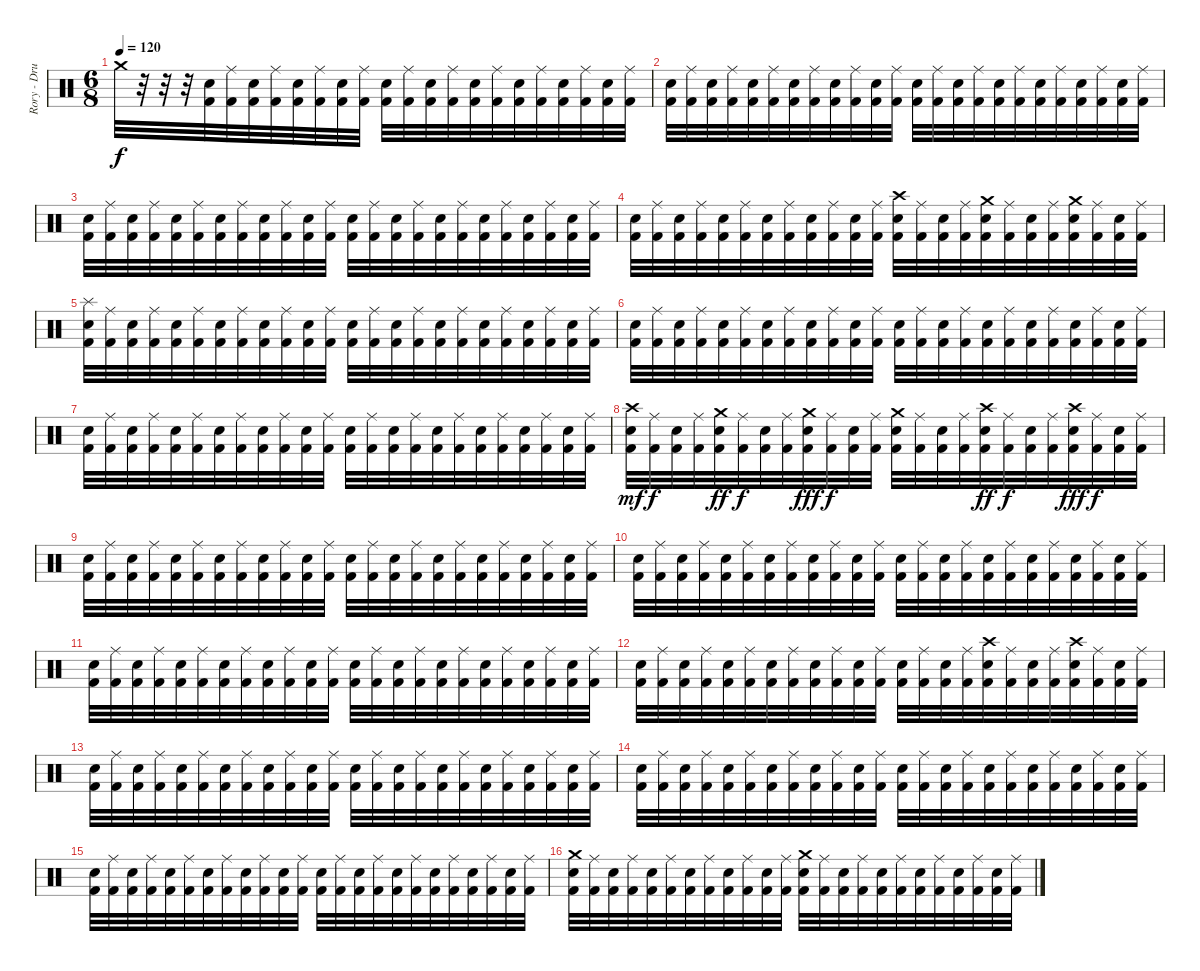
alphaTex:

\track ("Rory - Drums" "Rory - Dru") {instrument percussion}
\staff {score}
\articulation defaults
\ts (6 8)
\tempo 120
\clef neutral
\ks c "Crash medium (hit)".32{dy f}
r.32 r.32 r.32 ("Kick (hit) 2" "Electric Snare (hit)").32 ("Kick (hit) 2" "Ride (middle)").32 ("Kick (hit) 2" "Electric Snare (hit)").32 ("Kick (hit) 2" "Ride (middle)").32 ("Kick (hit) 2" "Electric Snare (hit)").32 ("Kick (hit) 2" "Ride (middle)").32 ("Kick (hit) 2" "Electric Snare (hit)").32 ("Kick (hit) 2" "Ride (middle)").32 ("Kick (hit) 2" "Electric Snare (hit)").32 ("Kick (hit) 2" "Ride (middle)").32 ("Kick (hit) 2" "Electric Snare (hit)").32 ("Kick (hit) 2" "Ride (middle)").32 ("Kick (hit) 2" "Electric Snare (hit)").32 ("Kick (hit) 2" "Ride (middle)").32 ("Kick (hit) 2" "Electric Snare (hit)").32 ("Kick (hit) 2" "Ride (middle)").32 ("Kick (hit) 2" "Electric Snare (hit)").32 ("Kick (hit) 2" "Ride (middle)").32 ("Kick (hit) 2" "Electric Snare (hit)").32 ("Kick (hit) 2" "Ride (middle)").32 |
("Kick (hit) 2" "Electric Snare (hit)").32 ("Kick (hit) 2" "Ride (middle)").32 ("Kick (hit) 2" "Electric Snare (hit)").32 ("Kick (hit) 2" "Ride (middle)").32 ("Kick (hit) 2" "Electric Snare (hit)").32 ("Kick (hit) 2" "Ride (middle)").32 ("Kick (hit) 2" "Electric Snare (hit)").32 ("Kick (hit) 2" "Ride (middle)").32 ("Kick (hit) 2" "Electric Snare (hit)").32 ("Kick (hit) 2" "Ride (middle)").32 ("Kick (hit) 2" "Electric Snare (hit)").32 ("Kick (hit) 2" "Ride (middle)").32 ("Kick (hit) 2" "Electric Snare (hit)").32 ("Kick (hit) 2" "Ride (middle)").32 ("Kick (hit) 2" "Electric Snare (hit)").32 ("Kick (hit) 2" "Ride (middle)").32 ("Kick (hit) 2" "Electric Snare (hit)").32 ("Kick (hit) 2" "Ride (middle)").32 ("Kick (hit) 2" "Electric Snare (hit)").32 ("Kick (hit) 2" "Ride (middle)").32 ("Kick (hit) 2" "Electric Snare (hit)").32 ("Kick (hit) 2" "Ride (middle)").32 ("Kick (hit) 2" "Electric Snare (hit)").32 ("Kick (hit) 2" "Ride (middle)").32 |
("Kick (hit) 2" "Electric Snare (hit)").32 ("Kick (hit) 2" "Ride (middle)").32 ("Kick (hit) 2" "Electric Snare (hit)").32 ("Kick (hit) 2" "Ride (middle)").32 ("Kick (hit) 2" "Electric Snare (hit)").32 ("Kick (hit) 2" "Ride (middle)").32 ("Kick (hit) 2" "Electric Snare (hit)").32 ("Kick (hit) 2" "Ride (middle)").32 ("Kick (hit) 2" "Electric Snare (hit)").32 ("Kick (hit) 2" "Ride (middle)").32 ("Kick (hit) 2" "Electric Snare (hit)").32 ("Kick (hit) 2" "Ride (middle)").32 ("Kick (hit) 2" "Electric Snare (hit)").32 ("Kick (hit) 2" "Ride (middle)").32 ("Kick (hit) 2" "Electric Snare (hit)").32 ("Kick (hit) 2" "Ride (middle)").32 ("Kick (hit) 2" "Electric Snare (hit)").32 ("Kick (hit) 2" "Ride (middle)").32 ("Kick (hit) 2" "Electric Snare (hit)").32 ("Kick (hit) 2" "Ride (middle)").32 ("Kick (hit) 2" "Electric Snare (hit)").32 ("Kick (hit) 2" "Ride (middle)").32 ("Kick (hit) 2" "Electric Snare (hit)").32 ("Kick (hit) 2" "Ride (middle)").32 |
("Kick (hit) 2" "Electric Snare (hit)").32 ("Kick (hit) 2" "Ride (middle)").32 ("Kick (hit) 2" "Electric Snare (hit)").32 ("Kick (hit) 2" "Ride (middle)").32 ("Kick (hit) 2" "Electric Snare (hit)").32 ("Kick (hit) 2" "Ride (middle)").32 ("Kick (hit) 2" "Electric Snare (hit)").32 ("Kick (hit) 2" "Ride (middle)").32 ("Kick (hit) 2" "Electric Snare (hit)").32 ("Kick (hit) 2" "Ride (middle)").32 ("Kick (hit) 2" "Electric Snare (hit)").32 ("Kick (hit) 2" "Ride (middle)").32 ("Kick (hit) 2" "Crash high (hit)" "Electric Snare (hit)").32 ("Kick (hit) 2" "Ride (middle)").32 ("Kick (hit) 2" "Electric Snare (hit)").32 ("Kick (hit) 2" "Ride (middle)").32 ("Kick (hit) 2" "Crash medium (hit)" "Electric Snare (hit)").32 ("Kick (hit) 2" "Ride (middle)").32 ("Kick (hit) 2" "Electric Snare (hit)").32 ("Kick (hit) 2" "Ride (middle)").32 ("Kick (hit) 2" "Crash medium (hit)" "Electric Snare (hit)").32 ("Kick (hit) 2" "Ride (middle)").32 ("Kick (hit) 2" "Electric Snare (hit)").32 ("Kick (hit) 2" "Ride (middle)").32 |
("Kick (hit) 2" "Splash (hit)" "Electric Snare (hit)").32 ("Kick (hit) 2" "Ride (middle)").32 ("Kick (hit) 2" "Electric Snare (hit)").32 ("Kick (hit) 2" "Ride (middle)").32 ("Kick (hit) 2" "Electric Snare (hit)").32 ("Kick (hit) 2" "Ride (middle)").32 ("Kick (hit) 2" "Electric Snare (hit)").32 ("Kick (hit) 2" "Ride (middle)").32 ("Kick (hit) 2" "Electric Snare (hit)").32 ("Kick (hit) 2" "Ride (middle)").32 ("Kick (hit) 2" "Electric Snare (hit)").32 ("Kick (hit) 2" "Ride (middle)").32 ("Kick (hit) 2" "Electric Snare (hit)").32 ("Kick (hit) 2" "Ride (middle)").32 ("Kick (hit) 2" "Electric Snare (hit)").32 ("Kick (hit) 2" "Ride (middle)").32 ("Kick (hit) 2" "Electric Snare (hit)").32 ("Kick (hit) 2" "Ride (middle)").32 ("Kick (hit) 2" "Electric Snare (hit)").32 ("Kick (hit) 2" "Ride (middle)").32 ("Kick (hit) 2" "Electric Snare (hit)").32 ("Kick (hit) 2" "Ride (middle)").32 ("Kick (hit) 2" "Electric Snare (hit)").32 ("Kick (hit) 2" "Ride (middle)").32 |
("Kick (hit) 2" "Electric Snare (hit)").32 ("Kick (hit) 2" "Ride (middle)").32 ("Kick (hit) 2" "Electric Snare (hit)").32 ("Kick (hit) 2" "Ride (middle)").32 ("Kick (hit) 2" "Electric Snare (hit)").32 ("Kick (hit) 2" "Ride (middle)").32 ("Kick (hit) 2" "Electric Snare (hit)").32 ("Kick (hit) 2" "Ride (middle)").32 ("Kick (hit) 2" "Electric Snare (hit)").32 ("Kick (hit) 2" "Ride (middle)").32 ("Kick (hit) 2" "Electric Snare (hit)").32 ("Kick (hit) 2" "Ride (middle)").32 ("Kick (hit) 2" "Electric Snare (hit)").32 ("Kick (hit) 2" "Ride (middle)").32 ("Kick (hit) 2" "Electric Snare (hit)").32 ("Kick (hit) 2" "Ride (middle)").32 ("Kick (hit) 2" "Electric Snare (hit)").32 ("Kick (hit) 2" "Ride (middle)").32 ("Kick (hit) 2" "Electric Snare (hit)").32 ("Kick (hit) 2" "Ride (middle)").32 ("Kick (hit) 2" "Electric Snare (hit)").32 ("Kick (hit) 2" "Ride (middle)").32 ("Kick (hit) 2" "Electric Snare (hit)").32 ("Kick (hit) 2" "Ride (middle)").32 |
("Kick (hit) 2" "Electric Snare (hit)").32 ("Kick (hit) 2" "Ride (middle)").32 ("Kick (hit) 2" "Electric Snare (hit)").32 ("Kick (hit) 2" "Ride (middle)").32 ("Kick (hit) 2" "Electric Snare (hit)").32 ("Kick (hit) 2" "Ride (middle)").32 ("Kick (hit) 2" "Electric Snare (hit)").32 ("Kick (hit) 2" "Ride (middle)").32 ("Kick (hit) 2" "Electric Snare (hit)").32 ("Kick (hit) 2" "Ride (middle)").32 ("Kick (hit) 2" "Electric Snare (hit)").32 ("Kick (hit) 2" "Ride (middle)").32 ("Kick (hit) 2" "Electric Snare (hit)").32 ("Kick (hit) 2" "Ride (middle)").32 ("Kick (hit) 2" "Electric Snare (hit)").32 ("Kick (hit) 2" "Ride (middle)").32 ("Kick (hit) 2" "Electric Snare (hit)").32 ("Kick (hit) 2" "Ride (middle)").32 ("Kick (hit) 2" "Electric Snare (hit)").32 ("Kick (hit) 2" "Ride (middle)").32 ("Kick (hit) 2" "Electric Snare (hit)").32 ("Kick (hit) 2" "Ride (middle)").32 ("Kick (hit) 2" "Electric Snare (hit)").32 ("Kick (hit) 2" "Ride (middle)").32 |
("Kick (hit) 2" "Crash high (hit)" "Electric Snare (hit)").32{dy mf} ("Kick (hit) 2" "Ride (middle)").32{dy f} ("Kick (hit) 2" "Electric Snare (hit)").32 ("Kick (hit) 2" "Ride (middle)").32 ("Kick (hit) 2" "Crash medium (hit)" "Electric Snare (hit)").32{dy ff} ("Kick (hit) 2" "Ride (middle)").32{dy f} ("Kick (hit) 2" "Electric Snare (hit)").32 ("Kick (hit) 2" "Ride (middle)").32 ("Kick (hit) 2" "Crash medium (hit)" "Electric Snare (hit)").32{dy fff} ("Kick (hit) 2" "Ride (middle)").32{dy f} ("Kick (hit) 2" "Electric Snare (hit)").32 ("Kick (hit) 2" "Ride (middle)").32 ("Kick (hit) 2" "Crash medium (hit)" "Electric Snare (hit)").32 ("Kick (hit) 2" "Ride (middle)").32 ("Kick (hit) 2" "Electric Snare (hit)").32 ("Kick (hit) 2" "Ride (middle)").32 ("Kick (hit) 2" "Crash high (hit)" "Electric Snare (hit)").32{dy ff} ("Kick (hit) 2" "Ride (middle)").32{dy f} ("Kick (hit) 2" "Electric Snare (hit)").32 ("Kick (hit) 2" "Ride (middle)").32 ("Kick (hit) 2" "Crash high (hit)" "Electric Snare (hit)").32{dy fff} ("Kick (hit) 2" "Ride (middle)").32{dy f} ("Kick (hit) 2" "Electric Snare (hit)").32 ("Kick (hit) 2" "Ride (middle)").32 |
("Kick (hit) 2" "Electric Snare (hit)").32 ("Kick (hit) 2" "Ride (middle)").32 ("Kick (hit) 2" "Electric Snare (hit)").32 ("Kick (hit) 2" "Ride (middle)").32 ("Kick (hit) 2" "Electric Snare (hit)").32 ("Kick (hit) 2" "Ride (middle)").32 ("Kick (hit) 2" "Electric Snare (hit)").32 ("Kick (hit) 2" "Ride (middle)").32 ("Kick (hit) 2" "Electric Snare (hit)").32 ("Kick (hit) 2" "Ride (middle)").32 ("Kick (hit) 2" "Electric Snare (hit)").32 ("Kick (hit) 2" "Ride (middle)").32 ("Kick (hit) 2" "Electric Snare (hit)").32 ("Kick (hit) 2" "Ride (middle)").32 ("Kick (hit) 2" "Electric Snare (hit)").32 ("Kick (hit) 2" "Ride (middle)").32 ("Kick (hit) 2" "Electric Snare (hit)").32 ("Kick (hit) 2" "Ride (middle)").32 ("Kick (hit) 2" "Electric Snare (hit)").32 ("Kick (hit) 2" "Ride (middle)").32 ("Kick (hit) 2" "Electric Snare (hit)").32 ("Kick (hit) 2" "Ride (middle)").32 ("Kick (hit) 2" "Electric Snare (hit)").32 ("Kick (hit) 2" "Ride (middle)").32 |
("Kick (hit) 2" "Electric Snare (hit)").32 ("Kick (hit) 2" "Ride (middle)").32 ("Kick (hit) 2" "Electric Snare (hit)").32 ("Kick (hit) 2" "Ride (middle)").32 ("Kick (hit) 2" "Electric Snare (hit)").32 ("Kick (hit) 2" "Ride (middle)").32 ("Kick (hit) 2" "Electric Snare (hit)").32 ("Kick (hit) 2" "Ride (middle)").32 ("Kick (hit) 2" "Electric Snare (hit)").32 ("Kick (hit) 2" "Ride (middle)").32 ("Kick (hit) 2" "Electric Snare (hit)").32 ("Kick (hit) 2" "Ride (middle)").32 ("Kick (hit) 2" "Electric Snare (hit)").32 ("Kick (hit) 2" "Ride (middle)").32 ("Kick (hit) 2" "Electric Snare (hit)").32 ("Kick (hit) 2" "Ride (middle)").32 ("Kick (hit) 2" "Electric Snare (hit)").32 ("Kick (hit) 2" "Ride (middle)").32 ("Kick (hit) 2" "Electric Snare (hit)").32 ("Kick (hit) 2" "Ride (middle)").32 ("Kick (hit) 2" "Electric Snare (hit)").32 ("Kick (hit) 2" "Ride (middle)").32 ("Kick (hit) 2" "Electric Snare (hit)").32 ("Kick (hit) 2" "Ride (middle)").32 |
("Kick (hit) 2" "Electric Snare (hit)").32 ("Kick (hit) 2" "Ride (middle)").32 ("Kick (hit) 2" "Electric Snare (hit)").32 ("Kick (hit) 2" "Ride (middle)").32 ("Kick (hit) 2" "Electric Snare (hit)").32 ("Kick (hit) 2" "Ride (middle)").32 ("Kick (hit) 2" "Electric Snare (hit)").32 ("Kick (hit) 2" "Ride (middle)").32 ("Kick (hit) 2" "Electric Snare (hit)").32 ("Kick (hit) 2" "Ride (middle)").32 ("Kick (hit) 2" "Electric Snare (hit)").32 ("Kick (hit) 2" "Ride (middle)").32 ("Kick (hit) 2" "Electric Snare (hit)").32 ("Kick (hit) 2" "Ride (middle)").32 ("Kick (hit) 2" "Electric Snare (hit)").32 ("Kick (hit) 2" "Ride (middle)").32 ("Kick (hit) 2" "Electric Snare (hit)").32 ("Kick (hit) 2" "Ride (middle)").32 ("Kick (hit) 2" "Electric Snare (hit)").32 ("Kick (hit) 2" "Ride (middle)").32 ("Kick (hit) 2" "Electric Snare (hit)").32 ("Kick (hit) 2" "Ride (middle)").32 ("Kick (hit) 2" "Electric Snare (hit)").32 ("Kick (hit) 2" "Ride (middle)").32 |
("Kick (hit) 2" "Electric Snare (hit)").32 ("Kick (hit) 2" "Ride (middle)").32 ("Kick (hit) 2" "Electric Snare (hit)").32 ("Kick (hit) 2" "Ride (middle)").32 ("Kick (hit) 2" "Electric Snare (hit)").32 ("Kick (hit) 2" "Ride (middle)").32 ("Kick (hit) 2" "Electric Snare (hit)").32 ("Kick (hit) 2" "Ride (middle)").32 ("Kick (hit) 2" "Electric Snare (hit)").32 ("Kick (hit) 2" "Ride (middle)").32 ("Kick (hit) 2" "Electric Snare (hit)").32 ("Kick (hit) 2" "Ride (middle)").32 ("Kick (hit) 2" "Electric Snare (hit)").32 ("Kick (hit) 2" "Ride (middle)").32 ("Kick (hit) 2" "Electric Snare (hit)").32 ("Kick (hit) 2" "Ride (middle)").32 ("Kick (hit) 2" "Crash high (hit)" "Electric Snare (hit)").32 ("Kick (hit) 2" "Ride (middle)").32 ("Kick (hit) 2" "Electric Snare (hit)").32 ("Kick (hit) 2" "Ride (middle)").32 ("Kick (hit) 2" "Crash high (hit)" "Electric Snare (hit)").32 ("Kick (hit) 2" "Ride (middle)").32 ("Kick (hit) 2" "Electric Snare (hit)").32 ("Kick (hit) 2" "Ride (middle)").32 |
("Kick (hit) 2" "Electric Snare (hit)").32 ("Kick (hit) 2" "Ride (middle)").32 ("Kick (hit) 2" "Electric Snare (hit)").32 ("Kick (hit) 2" "Ride (middle)").32 ("Kick (hit) 2" "Electric Snare (hit)").32 ("Kick (hit) 2" "Ride (middle)").32 ("Kick (hit) 2" "Electric Snare (hit)").32 ("Kick (hit) 2" "Ride (middle)").32 ("Kick (hit) 2" "Electric Snare (hit)").32 ("Kick (hit) 2" "Ride (middle)").32 ("Kick (hit) 2" "Electric Snare (hit)").32 ("Kick (hit) 2" "Ride (middle)").32 ("Kick (hit) 2" "Electric Snare (hit)").32 ("Kick (hit) 2" "Ride (middle)").32 ("Kick (hit) 2" "Electric Snare (hit)").32 ("Kick (hit) 2" "Ride (middle)").32 ("Kick (hit) 2" "Electric Snare (hit)").32 ("Kick (hit) 2" "Ride (middle)").32 ("Kick (hit) 2" "Electric Snare (hit)").32 ("Kick (hit) 2" "Ride (middle)").32 ("Kick (hit) 2" "Electric Snare (hit)").32 ("Kick (hit) 2" "Ride (middle)").32 ("Kick (hit) 2" "Electric Snare (hit)").32 ("Kick (hit) 2" "Ride (middle)").32 |
("Kick (hit) 2" "Electric Snare (hit)").32 ("Kick (hit) 2" "Ride (middle)").32 ("Kick (hit) 2" "Electric Snare (hit)").32 ("Kick (hit) 2" "Ride (middle)").32 ("Kick (hit) 2" "Electric Snare (hit)").32 ("Kick (hit) 2" "Ride (middle)").32 ("Kick (hit) 2" "Electric Snare (hit)").32 ("Kick (hit) 2" "Ride (middle)").32 ("Kick (hit) 2" "Electric Snare (hit)").32 ("Kick (hit) 2" "Ride (middle)").32 ("Kick (hit) 2" "Electric Snare (hit)").32 ("Kick (hit) 2" "Ride (middle)").32 ("Kick (hit) 2" "Electric Snare (hit)").32 ("Kick (hit) 2" "Ride (middle)").32 ("Kick (hit) 2" "Electric Snare (hit)").32 ("Kick (hit) 2" "Ride (middle)").32 ("Kick (hit) 2" "Electric Snare (hit)").32 ("Kick (hit) 2" "Ride (middle)").32 ("Kick (hit) 2" "Electric Snare (hit)").32 ("Kick (hit) 2" "Ride (middle)").32 ("Kick (hit) 2" "Electric Snare (hit)").32 ("Kick (hit) 2" "Ride (middle)").32 ("Kick (hit) 2" "Electric Snare (hit)").32 ("Kick (hit) 2" "Ride (middle)").32 |
("Kick (hit) 2" "Electric Snare (hit)").32 ("Kick (hit) 2" "Ride (middle)").32 ("Kick (hit) 2" "Electric Snare (hit)").32 ("Kick (hit) 2" "Ride (middle)").32 ("Kick (hit) 2" "Electric Snare (hit)").32 ("Kick (hit) 2" "Ride (middle)").32 ("Kick (hit) 2" "Electric Snare (hit)").32 ("Kick (hit) 2" "Ride (middle)").32 ("Kick (hit) 2" "Electric Snare (hit)").32 ("Kick (hit) 2" "Ride (middle)").32 ("Kick (hit) 2" "Electric Snare (hit)").32 ("Kick (hit) 2" "Ride (middle)").32 ("Kick (hit) 2" "Electric Snare (hit)").32 ("Kick (hit) 2" "Ride (middle)").32 ("Kick (hit) 2" "Electric Snare (hit)").32 ("Kick (hit) 2" "Ride (middle)").32 ("Kick (hit) 2" "Electric Snare (hit)").32 ("Kick (hit) 2" "Ride (middle)").32 ("Kick (hit) 2" "Electric Snare (hit)").32 ("Kick (hit) 2" "Ride (middle)").32 ("Kick (hit) 2" "Electric Snare (hit)").32 ("Kick (hit) 2" "Ride (middle)").32 ("Kick (hit) 2" "Electric Snare (hit)").32 ("Kick (hit) 2" "Ride (middle)").32 |
("Kick (hit) 2" "Crash medium (hit)" "Electric Snare (hit)").32 ("Kick (hit) 2" "Ride (middle)").32 ("Kick (hit) 2" "Electric Snare (hit)").32 ("Kick (hit) 2" "Ride (middle)").32 ("Kick (hit) 2" "Electric Snare (hit)").32 ("Kick (hit) 2" "Ride (middle)").32 ("Kick (hit) 2" "Electric Snare (hit)").32 ("Kick (hit) 2" "Ride (middle)").32 ("Kick (hit) 2" "Electric Snare (hit)").32 ("Kick (hit) 2" "Ride (middle)").32 ("Kick (hit) 2" "Electric Snare (hit)").32 ("Kick (hit) 2" "Ride (middle)").32 ("Kick (hit) 2" "Crash medium (hit)" "Electric Snare (hit)").32 ("Kick (hit) 2" "Ride (middle)").32 ("Kick (hit) 2" "Electric Snare (hit)").32 ("Kick (hit) 2" "Ride (middle)").32 ("Kick (hit) 2" "Electric Snare (hit)").32 ("Kick (hit) 2" "Ride (middle)").32 ("Kick (hit) 2" "Electric Snare (hit)").32 ("Kick (hit) 2" "Ride (middle)").32 ("Kick (hit) 2" "Electric Snare (hit)").32 ("Kick (hit) 2" "Ride (middle)").32 ("Kick (hit) 2" "Electric Snare (hit)").32 ("Kick (hit) 2" "Ride (middle)").32
